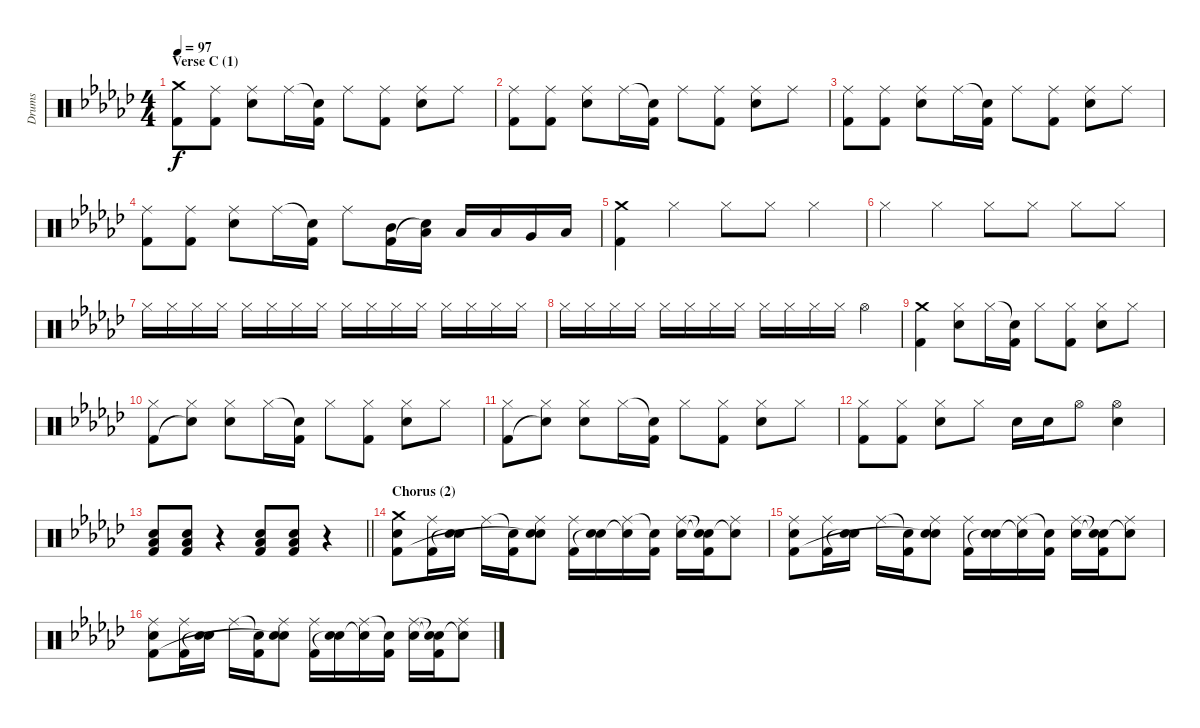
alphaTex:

\track ("Drums" "Drums") {instrument percussion}
\staff {score}
\articulation defaults
\ts (4 4)
\section ("" "Verse C (1)")
\tempo 97
\clef neutral
\ks ebminor
("Crash medium (hit)" "Kick (hit) 2").8{dy f} ("Ride (middle)" "Kick (hit) 2").8 ("Ride (middle)" "Electric Snare (hit)").8 "Ride (middle)".16 ("Snare (hit)"{t} "Kick (hit) 2").16 "Ride (middle)".8 ("Ride (middle)" "Kick (hit) 2").8 ("Ride (middle)" "Electric Snare (hit)").8 "Ride (middle)".8 |
("Ride (middle)" "Kick (hit) 2").8 ("Ride (middle)" "Kick (hit) 2").8 ("Ride (middle)" "Electric Snare (hit)").8 "Ride (middle)".16 ("Snare (hit)"{t} "Kick (hit) 2").16 "Ride (middle)".8 ("Ride (middle)" "Kick (hit) 2").8 ("Ride (middle)" "Electric Snare (hit)").8 "Ride (middle)".8 |
("Ride (middle)" "Kick (hit) 2").8 ("Ride (middle)" "Kick (hit) 2").8 ("Ride (middle)" "Electric Snare (hit)").8 "Ride (middle)".16 ("Snare (hit)"{t} "Kick (hit) 2").16 "Ride (middle)".8 ("Ride (middle)" "Kick (hit) 2").8 ("Ride (middle)" "Electric Snare (hit)").8 "Ride (middle)".8 |
("Ride (middle)" "Kick (hit) 2").8 ("Ride (middle)" "Kick (hit) 2").8 ("Ride (middle)" "Electric Snare (hit)").8 "Ride (middle)".16 ("Snare (hit)"{t} "Kick (hit) 2").16 "Ride (middle)".8 ("Mid Tom (hit)" "Kick (hit) 2").16 ("Low Tom (hit)" "Snare (hit)"{t}).16 "Low Tom (hit)".16 "Low Tom (hit)".16 "Very Low Tom (hit)".16 "Low Floor Tom (hit)".16 |
("Crash medium (hit)" "Kick (hit) 2").4 "Hi-Hat (closed)".4 "Hi-Hat (closed)".8 "Hi-Hat (closed)".8 "Hi-Hat (closed)".4 |
"Hi-Hat (closed)".4 "Hi-Hat (closed)".4 "Hi-Hat (closed)".8 "Hi-Hat (closed)".8 "Hi-Hat (closed)".8 "Hi-Hat (closed)".8 |
"Hi-Hat (closed)".16 "Hi-Hat (closed)".16 "Hi-Hat (closed)".16 "Hi-Hat (closed)".16 "Hi-Hat (closed)".16 "Hi-Hat (closed)".16 "Hi-Hat (closed)".16 "Hi-Hat (closed)".16 "Hi-Hat (closed)".16 "Hi-Hat (closed)".16 "Hi-Hat (closed)".16 "Hi-Hat (closed)".16 "Hi-Hat (closed)".16 "Hi-Hat (closed)".16 "Hi-Hat (closed)".16 "Hi-Hat (closed)".16 |
"Hi-Hat (closed)".16 "Hi-Hat (closed)".16 "Hi-Hat (closed)".16 "Hi-Hat (closed)".16 "Hi-Hat (closed)".16 "Hi-Hat (closed)".16 "Hi-Hat (closed)".16 "Hi-Hat (closed)".16 "Hi-Hat (closed)".16 "Hi-Hat (closed)".16 "Hi-Hat (closed)".16 "Hi-Hat (closed)".16 "Hi-Hat (open)".4 |
("Crash medium (hit)" "Kick (hit) 2").4 ("Hi-Hat (closed)" "Electric Snare (hit)").8 "Hi-Hat (closed)".16 ("Snare (hit)"{t} "Kick (hit) 2").16 "Hi-Hat (closed)".8 ("Hi-Hat (closed)" "Kick (hit) 2").8 ("Hi-Hat (closed)" "Electric Snare (hit)").8 "Hi-Hat (closed)".8 |
("Hi-Hat (closed)" "Kick (hit) 2").8 ("Hi-Hat (closed)" "Snare (hit)"{t}).8 ("Hi-Hat (closed)" "Electric Snare (hit)").8 "Hi-Hat (closed)".16 ("Snare (hit)"{t} "Kick (hit) 2").16 "Hi-Hat (closed)".8 ("Hi-Hat (closed)" "Kick (hit) 2").8 ("Hi-Hat (closed)" "Electric Snare (hit)").8 "Hi-Hat (closed)".8 |
("Hi-Hat (closed)" "Kick (hit) 2").8 ("Hi-Hat (closed)" "Snare (hit)"{t}).8 ("Hi-Hat (closed)" "Electric Snare (hit)").8 "Hi-Hat (closed)".16 ("Snare (hit)"{t} "Kick (hit) 2").16 "Hi-Hat (closed)".8 ("Hi-Hat (closed)" "Kick (hit) 2").8 ("Hi-Hat (closed)" "Electric Snare (hit)").8 "Hi-Hat (closed)".8 |
("Hi-Hat (closed)" "Kick (hit) 2").8 ("Hi-Hat (closed)" "Kick (hit) 2").8 ("Hi-Hat (closed)" "Electric Snare (hit)").8 "Hi-Hat (closed)".8 "Electric Snare (hit)".16 "Electric Snare (hit)".16 "Hi-Hat (open)".8 ("Hi-Hat (open)" "Electric Snare (hit)").4 |
\barLineRight lightlight
("Electric Snare (hit)" "Low Floor Tom (hit)" "Kick (hit) 2").8 ("Electric Snare (hit)" "Low Floor Tom (hit)" "Kick (hit) 2").8 r.4 ("Electric Snare (hit)" "Low Floor Tom (hit)" "Kick (hit) 2").8 ("Electric Snare (hit)" "Low Floor Tom (hit)" "Kick (hit) 2").8 r.4 |
\section ("" "Chorus (2)")
("Crash medium (hit)" "Electric Snare (hit)" "Kick (hit) 2").8 ("Ride (middle)" "Kick (hit) 2").16 ("Electric Snare (hit)" "Snare (hit)"{t}).16 "Ride (middle)".16 ("Snare (hit)"{t} "Kick (hit) 2").16 ("Ride (middle)" "Electric Snare (hit)" "Snare (hit)"{t}).8 ("Ride (middle)" "Kick (hit) 2").16 ("Electric Snare (hit)" "Snare (hit)"{t}).16 ("Ride (middle)" "Snare (hit)"{t}).16 ("Snare (hit)"{t} "Kick (hit) 2").16 ("Ride (middle)" "Electric Snare (hit)").16 ("Snare (hit)"{t} "Snare (hit)"{t} "Kick (hit) 2").16 ("Ride (middle)" "Snare (hit)"{t}).8 |
("Ride (middle)" "Electric Snare (hit)" "Kick (hit) 2").8 ("Ride (middle)" "Kick (hit) 2").16 ("Electric Snare (hit)" "Snare (hit)"{t}).16 "Ride (middle)".16 ("Snare (hit)"{t} "Kick (hit) 2").16 ("Ride (middle)" "Electric Snare (hit)" "Snare (hit)"{t}).8 ("Ride (middle)" "Kick (hit) 2").16 ("Electric Snare (hit)" "Snare (hit)"{t}).16 ("Ride (middle)" "Snare (hit)"{t}).16 ("Snare (hit)"{t} "Kick (hit) 2").16 ("Ride (middle)" "Electric Snare (hit)").16 ("Snare (hit)"{t} "Snare (hit)"{t} "Kick (hit) 2").16 ("Ride (middle)" "Snare (hit)"{t}).8 |
("Ride (middle)" "Electric Snare (hit)" "Kick (hit) 2").8 ("Ride (middle)" "Kick (hit) 2").16 ("Electric Snare (hit)" "Snare (hit)"{t}).16 "Ride (middle)".16 ("Snare (hit)"{t} "Kick (hit) 2").16 ("Ride (middle)" "Electric Snare (hit)" "Snare (hit)"{t}).8 ("Ride (middle)" "Kick (hit) 2").16 ("Electric Snare (hit)" "Snare (hit)"{t}).16 ("Ride (middle)" "Snare (hit)"{t}).16 ("Snare (hit)"{t} "Kick (hit) 2").16 ("Ride (middle)" "Electric Snare (hit)").16 ("Snare (hit)"{t} "Snare (hit)"{t} "Kick (hit) 2").16 ("Ride (middle)" "Snare (hit)"{t}).8
